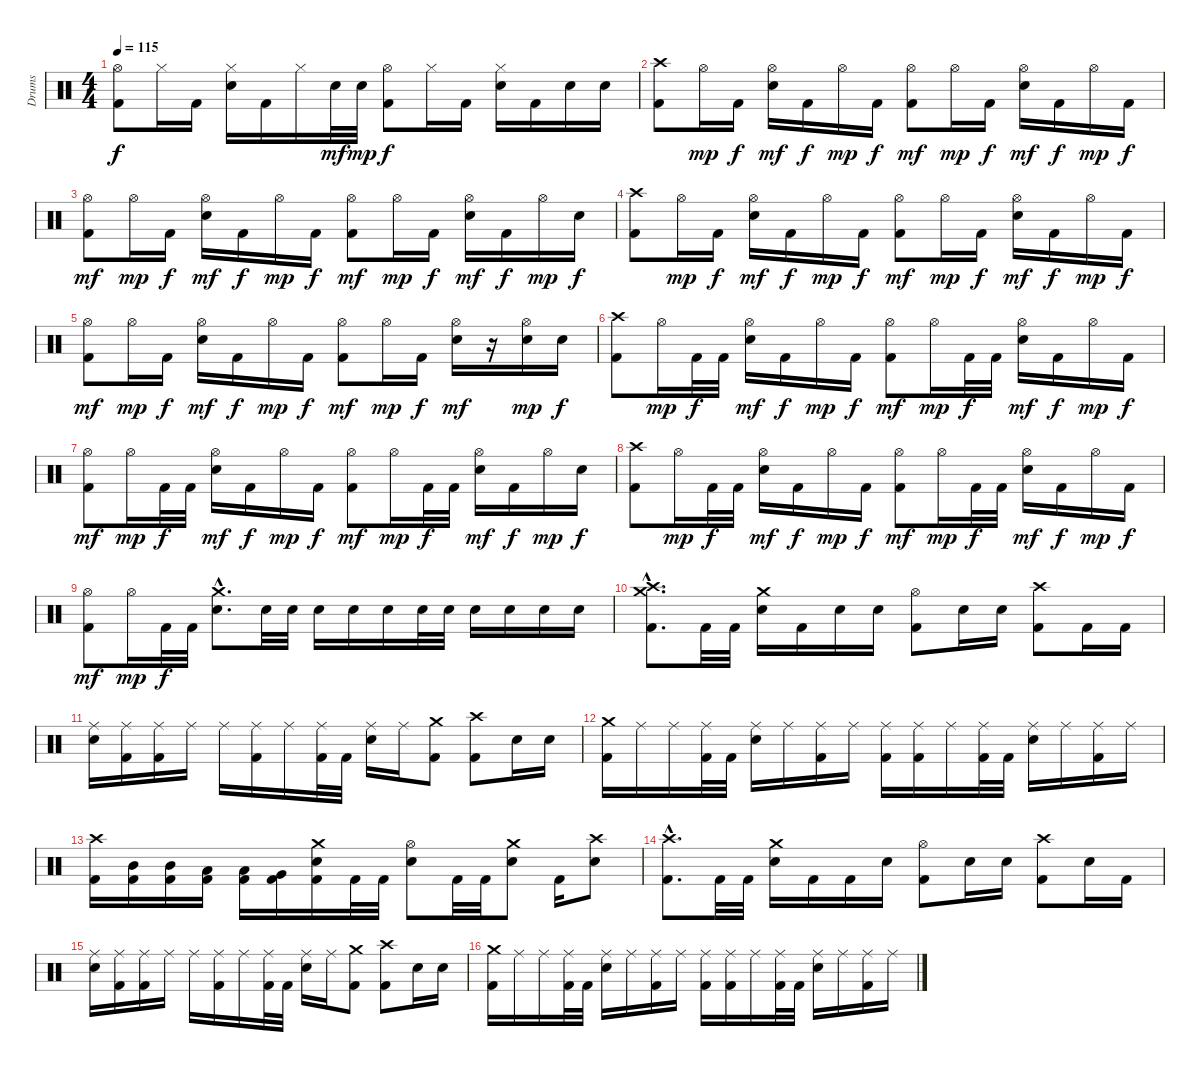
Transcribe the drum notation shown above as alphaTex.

\track ("Drums" "Drums") {instrument percussion}
\staff {score}
\articulation defaults
\ts (4 4)
\tempo 115
\clef neutral
\ks c
("Hi-Hat (open)" "Kick (hit) 2").8{dy f} "Hi-Hat (closed)".16 "Kick (hit) 2".16 ("Hi-Hat (closed)" "Electric Snare (hit)").16 "Kick (hit) 2".16 "Hi-Hat (closed)".16 "Electric Snare (hit)".32{dy mf} "Electric Snare (hit)".32{dy mp} ("Hi-Hat (open)" "Kick (hit) 2").8{dy f} "Hi-Hat (closed)".16 "Kick (hit) 2".16 ("Hi-Hat (closed)" "Electric Snare (hit)").16 "Kick (hit) 2".16 "Electric Snare (hit)".16 "Electric Snare (hit)".16 |
("Crash high (hit)" "Kick (hit) 2").8 "Hi-Hat (open)".16{dy mp} "Kick (hit) 2".16{dy f} ("Hi-Hat (open)" "Electric Snare (hit)").16{dy mf} "Kick (hit) 2".16{dy f} "Hi-Hat (open)".16{dy mp} "Kick (hit) 2".16{dy f} ("Hi-Hat (open)" "Kick (hit) 2").8{dy mf} "Hi-Hat (open)".16{dy mp} "Kick (hit) 2".16{dy f} ("Hi-Hat (open)" "Electric Snare (hit)").16{dy mf} "Kick (hit) 2".16{dy f} "Hi-Hat (open)".16{dy mp} "Kick (hit) 2".16{dy f} |
("Hi-Hat (open)" "Kick (hit) 2").8{dy mf} "Hi-Hat (open)".16{dy mp} "Kick (hit) 2".16{dy f} ("Hi-Hat (open)" "Electric Snare (hit)").16{dy mf} "Kick (hit) 2".16{dy f} "Hi-Hat (open)".16{dy mp} "Kick (hit) 2".16{dy f} ("Hi-Hat (open)" "Kick (hit) 2").8{dy mf} "Hi-Hat (open)".16{dy mp} "Kick (hit) 2".16{dy f} ("Hi-Hat (open)" "Electric Snare (hit)").16{dy mf} "Kick (hit) 2".16{dy f} "Hi-Hat (open)".16{dy mp} "Electric Snare (hit)".16{dy f} |
("Crash high (hit)" "Kick (hit) 2").8 "Hi-Hat (open)".16{dy mp} "Kick (hit) 2".16{dy f} ("Hi-Hat (open)" "Electric Snare (hit)").16{dy mf} "Kick (hit) 2".16{dy f} "Hi-Hat (open)".16{dy mp} "Kick (hit) 2".16{dy f} ("Hi-Hat (open)" "Kick (hit) 2").8{dy mf} "Hi-Hat (open)".16{dy mp} "Kick (hit) 2".16{dy f} ("Hi-Hat (open)" "Electric Snare (hit)").16{dy mf} "Kick (hit) 2".16{dy f} "Hi-Hat (open)".16{dy mp} "Kick (hit) 2".16{dy f} |
("Hi-Hat (open)" "Kick (hit) 2").8{dy mf} "Hi-Hat (open)".16{dy mp} "Kick (hit) 2".16{dy f} ("Hi-Hat (open)" "Electric Snare (hit)").16{dy mf} "Kick (hit) 2".16{dy f} "Hi-Hat (open)".16{dy mp} "Kick (hit) 2".16{dy f} ("Hi-Hat (open)" "Kick (hit) 2").8{dy mf} "Hi-Hat (open)".16{dy mp} "Kick (hit) 2".16{dy f} ("Hi-Hat (open)" "Electric Snare (hit)").16{dy mf} r.16 ("Hi-Hat (open)" "Electric Snare (hit)").16{dy mp} "Electric Snare (hit)".16{dy f} |
("Crash high (hit)" "Kick (hit) 2").8 "Hi-Hat (open)".16{dy mp} "Kick (hit) 2".32{dy f} "Kick (hit) 2".32 ("Hi-Hat (open)" "Electric Snare (hit)").16{dy mf} "Kick (hit) 2".16{dy f} "Hi-Hat (open)".16{dy mp} "Kick (hit) 2".16{dy f} ("Hi-Hat (open)" "Kick (hit) 2").8{dy mf} "Hi-Hat (open)".16{dy mp} "Kick (hit) 2".32{dy f} "Kick (hit) 2".32 ("Hi-Hat (open)" "Electric Snare (hit)").16{dy mf} "Kick (hit) 2".16{dy f} "Hi-Hat (open)".16{dy mp} "Kick (hit) 2".16{dy f} |
("Hi-Hat (open)" "Kick (hit) 2").8{dy mf} "Hi-Hat (open)".16{dy mp} "Kick (hit) 2".32{dy f} "Kick (hit) 2".32 ("Hi-Hat (open)" "Electric Snare (hit)").16{dy mf} "Kick (hit) 2".16{dy f} "Hi-Hat (open)".16{dy mp} "Kick (hit) 2".16{dy f} ("Hi-Hat (open)" "Kick (hit) 2").8{dy mf} "Hi-Hat (open)".16{dy mp} "Kick (hit) 2".32{dy f} "Kick (hit) 2".32 ("Hi-Hat (open)" "Electric Snare (hit)").16{dy mf} "Kick (hit) 2".16{dy f} "Hi-Hat (open)".16{dy mp} "Electric Snare (hit)".16{dy f} |
("Crash high (hit)" "Kick (hit) 2").8 "Hi-Hat (open)".16{dy mp} "Kick (hit) 2".32{dy f} "Kick (hit) 2".32 ("Hi-Hat (open)" "Electric Snare (hit)").16{dy mf} "Kick (hit) 2".16{dy f} "Hi-Hat (open)".16{dy mp} "Kick (hit) 2".16{dy f} ("Hi-Hat (open)" "Kick (hit) 2").8{dy mf} "Hi-Hat (open)".16{dy mp} "Kick (hit) 2".32{dy f} "Kick (hit) 2".32 ("Hi-Hat (open)" "Electric Snare (hit)").16{dy mf} "Kick (hit) 2".16{dy f} "Hi-Hat (open)".16{dy mp} "Kick (hit) 2".16{dy f} |
("Hi-Hat (open)" "Kick (hit) 2").8{dy mf} "Hi-Hat (open)".16{dy mp} "Kick (hit) 2".32{dy f} "Kick (hit) 2".32 ("Crash medium (hit)"{hac} "Electric Snare (hit)"{hac}).8{d} "Electric Snare (hit)".32 "Electric Snare (hit)".32 "Electric Snare (hit)".16 "Electric Snare (hit)".16 "Electric Snare (hit)".16 "Electric Snare (hit)".32 "Electric Snare (hit)".32 "Electric Snare (hit)".16 "Electric Snare (hit)".16 "Electric Snare (hit)".16 "Electric Snare (hit)".16 |
("Crash medium (hit)"{hac} "Crash high (hit)"{hac} "Kick (hit) 2"{hac}).8{d} "Kick (hit) 2".32 "Kick (hit) 2".32 ("Crash medium (hit)" "Electric Snare (hit)").16 "Kick (hit) 2".16 "Electric Snare (hit)".16 "Electric Snare (hit)".16 ("Hi-Hat (open)" "Kick (hit) 2").8 "Electric Snare (hit)".16 "Electric Snare (hit)".16 ("Crash high (hit)" "Kick (hit) 2").8 "Kick (hit) 2".16 "Kick (hit) 2".16 |
("Ride (middle)" "Electric Snare (hit)").16 ("Ride (middle)" "Kick (hit) 2").16 ("Ride (middle)" "Kick (hit) 2").16 "Ride (middle)".16 "Ride (middle)".16 ("Ride (middle)" "Kick (hit) 2").16 "Ride (middle)".16 ("Ride (middle)" "Kick (hit) 2").32 "Kick (hit) 2".32 ("Ride (middle)" "Electric Snare (hit)").16 "Ride (middle)".16 ("Crash medium (hit)" "Kick (hit) 2").8 ("Crash high (hit)" "Kick (hit) 2").8 "Electric Snare (hit)".16 "Electric Snare (hit)".16 |
("Crash medium (hit)" "Kick (hit) 2").16 "Ride (middle)".16 "Ride (middle)".16 ("Ride (middle)" "Kick (hit) 2").32 "Kick (hit) 2".32 ("Ride (middle)" "Electric Snare (hit)").16 "Ride (middle)".16 ("Ride (middle)" "Kick (hit) 2").16 "Ride (middle)".16 ("Ride (middle)" "Kick (hit) 2").16 ("Ride (middle)" "Kick (hit) 2").16 "Ride (middle)".16 ("Ride (middle)" "Kick (hit) 2").32 "Kick (hit) 2".32 ("Ride (middle)" "Electric Snare (hit)").16 "Ride (middle)".16 ("Ride (middle)" "Kick (hit) 2").16 "Ride (middle)".16 |
("Crash high (hit)" "Kick (hit) 2").16 ("Mid Tom (hit)" "Kick (hit) 2").16 ("Mid Tom (hit)" "Kick (hit) 2").16 ("Low Tom (hit)" "Kick (hit) 2").16 ("Low Tom (hit)" "Kick (hit) 2").16 ("Very Low Tom (hit)" "Kick (hit) 2").16 ("Crash medium (hit)" "Electric Snare (hit)" "Kick (hit) 2").16 "Kick (hit) 2".32 "Kick (hit) 2".32 ("Hi-Hat (open)" "Electric Snare (hit)").8 "Kick (hit) 2".32 "Kick (hit) 2".32 ("Crash medium (hit)" "Electric Snare (hit)").8 "Kick (hit) 2".16 ("Crash high (hit)" "Electric Snare (hit)").8 |
("Crash high (hit)"{hac} "Kick (hit) 2"{hac}).8{d} "Kick (hit) 2".32 "Kick (hit) 2".32 ("Crash medium (hit)" "Electric Snare (hit)").16 "Kick (hit) 2".16 "Kick (hit) 2".16 "Electric Snare (hit)".16 ("Hi-Hat (open)" "Kick (hit) 2").8 "Electric Snare (hit)".16 "Electric Snare (hit)".16 ("Crash high (hit)" "Kick (hit) 2").8 "Electric Snare (hit)".16 "Kick (hit) 2".16 |
("Ride (middle)" "Electric Snare (hit)").16 ("Ride (middle)" "Kick (hit) 2").16 ("Ride (middle)" "Kick (hit) 2").16 "Ride (middle)".16 "Ride (middle)".16 ("Ride (middle)" "Kick (hit) 2").16 "Ride (middle)".16 ("Ride (middle)" "Kick (hit) 2").32 "Kick (hit) 2".32 ("Ride (middle)" "Electric Snare (hit)").16 "Ride (middle)".16 ("Crash medium (hit)" "Kick (hit) 2").8 ("Crash high (hit)" "Kick (hit) 2").8 "Electric Snare (hit)".16 "Electric Snare (hit)".16 |
("Crash medium (hit)" "Kick (hit) 2").16 "Ride (middle)".16 "Ride (middle)".16 ("Ride (middle)" "Kick (hit) 2").32 "Kick (hit) 2".32 ("Ride (middle)" "Electric Snare (hit)").16 "Ride (middle)".16 ("Ride (middle)" "Kick (hit) 2").16 "Ride (middle)".16 ("Ride (middle)" "Kick (hit) 2").16 ("Ride (middle)" "Kick (hit) 2").16 "Ride (middle)".16 ("Ride (middle)" "Kick (hit) 2").32 "Kick (hit) 2".32 ("Ride (middle)" "Electric Snare (hit)").16 "Ride (middle)".16 ("Ride (middle)" "Kick (hit) 2").16 "Ride (middle)".16
